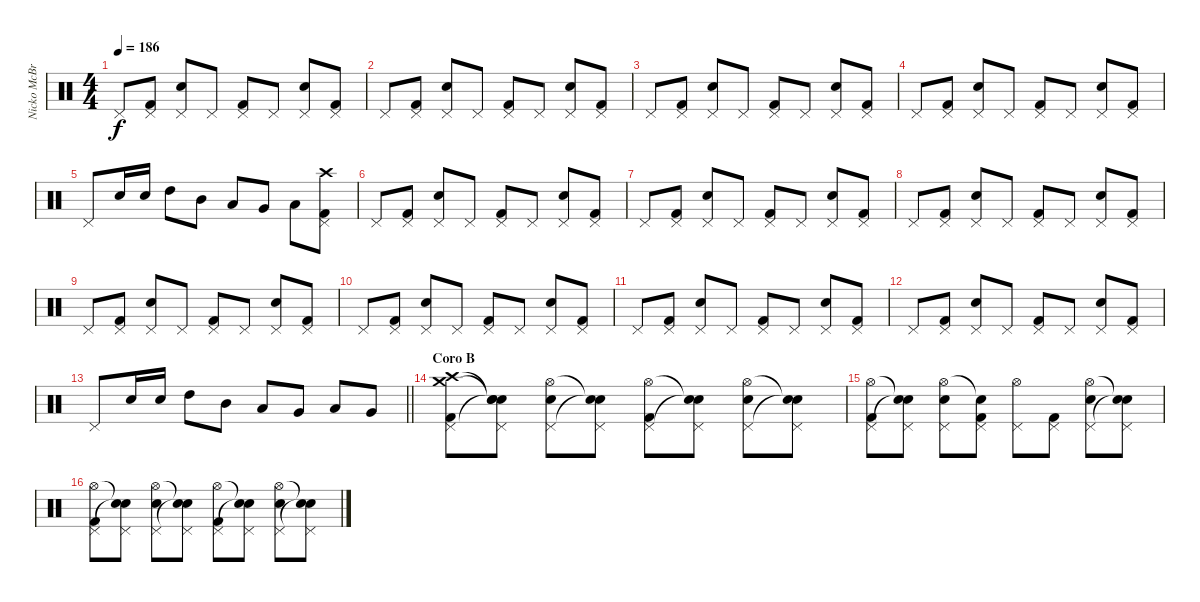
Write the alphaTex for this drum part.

\track ("Nicko McBrain" "Nicko McBr") {instrument percussion}
\staff {score}
\articulation defaults
\ts (4 4)
\tempo 186
\clef neutral
\ks c "Pedal Hi-Hat (hit)".8{dy f}
("Kick (hit) 2" "Pedal Hi-Hat (hit)").8 ("Snare (hit) 2" "Pedal Hi-Hat (hit)").8 "Pedal Hi-Hat (hit)".8 ("Kick (hit) 2" "Pedal Hi-Hat (hit)").8 "Pedal Hi-Hat (hit)".8 ("Snare (hit) 2" "Pedal Hi-Hat (hit)").8 ("Kick (hit) 2" "Pedal Hi-Hat (hit)").8 |
"Pedal Hi-Hat (hit)".8 ("Kick (hit) 2" "Pedal Hi-Hat (hit)").8 ("Snare (hit) 2" "Pedal Hi-Hat (hit)").8 "Pedal Hi-Hat (hit)".8 ("Kick (hit) 2" "Pedal Hi-Hat (hit)").8 "Pedal Hi-Hat (hit)".8 ("Snare (hit) 2" "Pedal Hi-Hat (hit)").8 ("Kick (hit) 2" "Pedal Hi-Hat (hit)").8 |
"Pedal Hi-Hat (hit)".8 ("Kick (hit) 2" "Pedal Hi-Hat (hit)").8 ("Snare (hit) 2" "Pedal Hi-Hat (hit)").8 "Pedal Hi-Hat (hit)".8 ("Kick (hit) 2" "Pedal Hi-Hat (hit)").8 "Pedal Hi-Hat (hit)".8 ("Snare (hit) 2" "Pedal Hi-Hat (hit)").8 ("Kick (hit) 2" "Pedal Hi-Hat (hit)").8 |
"Pedal Hi-Hat (hit)".8 ("Kick (hit) 2" "Pedal Hi-Hat (hit)").8 ("Snare (hit) 2" "Pedal Hi-Hat (hit)").8 "Pedal Hi-Hat (hit)".8 ("Kick (hit) 2" "Pedal Hi-Hat (hit)").8 "Pedal Hi-Hat (hit)".8 ("Snare (hit) 2" "Pedal Hi-Hat (hit)").8 ("Kick (hit) 2" "Pedal Hi-Hat (hit)").8 |
"Pedal Hi-Hat (hit)".8 "Snare (hit) 2".16 "Snare (hit) 2".16 "High Tom (hit)".8 "Mid Tom (hit)".8 "Low Tom (hit)".8 "Very Low Tom (hit)".8 "Low Floor Tom (hit)".8 ("Kick (hit) 2" "Pedal Hi-Hat (hit)" "Crash high (hit)").8 |
"Pedal Hi-Hat (hit)".8 ("Kick (hit) 2" "Pedal Hi-Hat (hit)").8 ("Snare (hit) 2" "Pedal Hi-Hat (hit)").8 "Pedal Hi-Hat (hit)".8 ("Kick (hit) 2" "Pedal Hi-Hat (hit)").8 "Pedal Hi-Hat (hit)".8 ("Snare (hit) 2" "Pedal Hi-Hat (hit)").8 ("Kick (hit) 2" "Pedal Hi-Hat (hit)").8 |
"Pedal Hi-Hat (hit)".8 ("Kick (hit) 2" "Pedal Hi-Hat (hit)").8 ("Snare (hit) 2" "Pedal Hi-Hat (hit)").8 "Pedal Hi-Hat (hit)".8 ("Kick (hit) 2" "Pedal Hi-Hat (hit)").8 "Pedal Hi-Hat (hit)".8 ("Snare (hit) 2" "Pedal Hi-Hat (hit)").8 ("Kick (hit) 2" "Pedal Hi-Hat (hit)").8 |
"Pedal Hi-Hat (hit)".8 ("Kick (hit) 2" "Pedal Hi-Hat (hit)").8 ("Snare (hit) 2" "Pedal Hi-Hat (hit)").8 "Pedal Hi-Hat (hit)".8 ("Kick (hit) 2" "Pedal Hi-Hat (hit)").8 "Pedal Hi-Hat (hit)".8 ("Snare (hit) 2" "Pedal Hi-Hat (hit)").8 ("Kick (hit) 2" "Pedal Hi-Hat (hit)").8 |
"Pedal Hi-Hat (hit)".8 ("Kick (hit) 2" "Pedal Hi-Hat (hit)").8 ("Snare (hit) 2" "Pedal Hi-Hat (hit)").8 "Pedal Hi-Hat (hit)".8 ("Kick (hit) 2" "Pedal Hi-Hat (hit)").8 "Pedal Hi-Hat (hit)".8 ("Snare (hit) 2" "Pedal Hi-Hat (hit)").8 ("Kick (hit) 2" "Pedal Hi-Hat (hit)").8 |
"Pedal Hi-Hat (hit)".8 ("Kick (hit) 2" "Pedal Hi-Hat (hit)").8 ("Snare (hit) 2" "Pedal Hi-Hat (hit)").8 "Pedal Hi-Hat (hit)".8 ("Kick (hit) 2" "Pedal Hi-Hat (hit)").8 "Pedal Hi-Hat (hit)".8 ("Snare (hit) 2" "Pedal Hi-Hat (hit)").8 ("Kick (hit) 2" "Pedal Hi-Hat (hit)").8 |
"Pedal Hi-Hat (hit)".8 ("Kick (hit) 2" "Pedal Hi-Hat (hit)").8 ("Snare (hit) 2" "Pedal Hi-Hat (hit)").8 "Pedal Hi-Hat (hit)".8 ("Kick (hit) 2" "Pedal Hi-Hat (hit)").8 "Pedal Hi-Hat (hit)".8 ("Snare (hit) 2" "Pedal Hi-Hat (hit)").8 ("Kick (hit) 2" "Pedal Hi-Hat (hit)").8 |
"Pedal Hi-Hat (hit)".8 ("Kick (hit) 2" "Pedal Hi-Hat (hit)").8 ("Snare (hit) 2" "Pedal Hi-Hat (hit)").8 "Pedal Hi-Hat (hit)".8 ("Kick (hit) 2" "Pedal Hi-Hat (hit)").8 "Pedal Hi-Hat (hit)".8 ("Snare (hit) 2" "Pedal Hi-Hat (hit)").8 ("Kick (hit) 2" "Pedal Hi-Hat (hit)").8 |
\barLineRight lightlight "Pedal Hi-Hat (hit)".8 "Snare (hit) 2".16 "Snare (hit) 2".16 "High Tom (hit)".8 "Mid Tom (hit)".8 "Low Tom (hit)".8 "Very Low Tom (hit)".8 "Low Floor Tom (hit)".8 "Very Low Tom (hit)".8
|
\section ("" "Coro B")
("Kick (hit) 2" "Pedal Hi-Hat (hit)" "Crash high (hit)" "Crash medium (hit)").8 ("Pedal Hi-Hat (hit)" "Snare (hit)"{t} "Snare (hit)"{t} "Snare (hit)"{t}).8 ("Snare (hit) 2" "Pedal Hi-Hat (hit)" "Hi-Hat (open)").8 ("Pedal Hi-Hat (hit)" "Snare (hit)"{t} "Snare (hit)"{t}).8 ("Kick (hit) 2" "Pedal Hi-Hat (hit)" "Hi-Hat (open)").8 ("Pedal Hi-Hat (hit)" "Snare (hit)"{t} "Snare (hit)"{t}).8 ("Snare (hit) 2" "Pedal Hi-Hat (hit)" "Hi-Hat (open)").8 ("Pedal Hi-Hat (hit)" "Snare (hit)"{t} "Snare (hit)"{t}).8 |
("Kick (hit) 2" "Pedal Hi-Hat (hit)" "Hi-Hat (open)").8 ("Pedal Hi-Hat (hit)" "Snare (hit)"{t} "Snare (hit)"{t}).8 ("Snare (hit) 2" "Pedal Hi-Hat (hit)" "Hi-Hat (open)").8 ("Kick (hit) 2" "Pedal Hi-Hat (hit)" "Snare (hit)"{t}).8 ("Pedal Hi-Hat (hit)" "Hi-Hat (open)").8 ("Kick (hit) 2" "Pedal Hi-Hat (hit)").8 ("Snare (hit) 2" "Pedal Hi-Hat (hit)" "Hi-Hat (open)").8 ("Pedal Hi-Hat (hit)" "Snare (hit)"{t} "Snare (hit)"{t}).8 |
("Kick (hit) 2" "Pedal Hi-Hat (hit)" "Hi-Hat (open)").8 ("Pedal Hi-Hat (hit)" "Snare (hit)"{t} "Snare (hit)"{t}).8 ("Snare (hit) 2" "Pedal Hi-Hat (hit)" "Hi-Hat (open)").8 ("Pedal Hi-Hat (hit)" "Snare (hit)"{t} "Snare (hit)"{t}).8 ("Kick (hit) 2" "Pedal Hi-Hat (hit)" "Hi-Hat (open)").8 ("Pedal Hi-Hat (hit)" "Snare (hit)"{t} "Snare (hit)"{t}).8 ("Snare (hit) 2" "Pedal Hi-Hat (hit)" "Hi-Hat (open)").8 ("Pedal Hi-Hat (hit)" "Snare (hit)"{t} "Snare (hit)"{t}).8
